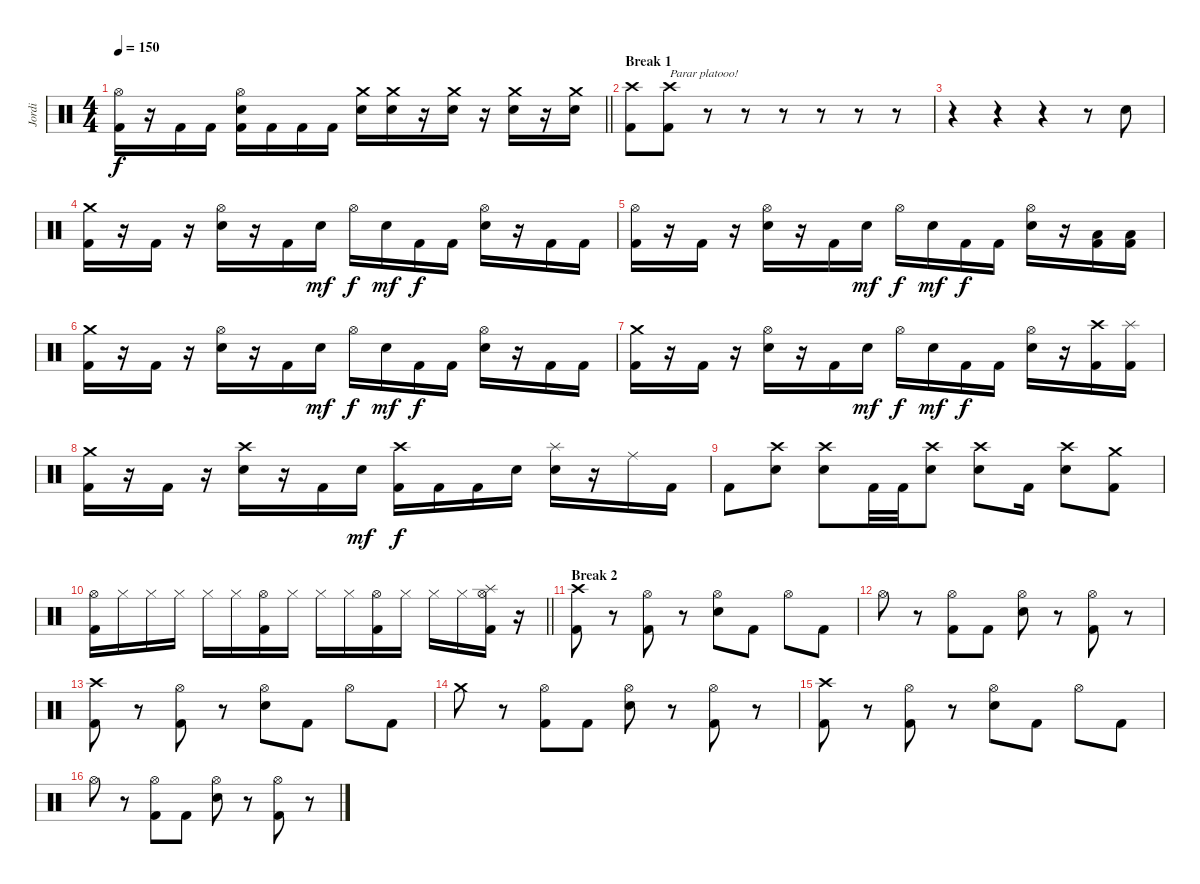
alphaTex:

\track ("Jordi" "Jordi") {instrument percussion}
\staff {score}
\articulation defaults
\ts (4 4)
\tempo 150
\clef neutral
\barLineRight lightlight
\ks c
("Hi-Hat (open)" "Kick (hit) 2").16{dy f} r.16 "Kick (hit) 2".16 "Kick (hit) 2".16 ("Hi-Hat (open)" "Snare (hit) 2" "Kick (hit) 2").16 "Kick (hit) 2".16 "Kick (hit) 2".16 "Kick (hit) 2".16 ("Crash medium (hit)" "Snare (hit) 2").16 ("Crash medium (hit)" "Snare (hit) 2").16 r.16 ("Crash medium (hit)" "Snare (hit) 2").16 r.16 ("Crash medium (hit)" "Snare (hit) 2").16 r.16 ("Crash medium (hit)" "Snare (hit) 2").16 |
\section ("" "Break 1")
("Crash high (hit)" "Kick (hit) 2").8 ("Crash high (hit)" "Kick (hit) 2").8{txt "Parar platooo!"} r.8 r.8 r.8 r.8 r.8 r.8 |
r.4 r.4 r.4 r.8 "Snare (hit) 2".8 |
("Crash medium (hit)" "Kick (hit) 2").16 r.16 "Kick (hit) 2".16 r.16 ("Hi-Hat (open)" "Snare (hit) 2").16 r.16 "Kick (hit) 2".16 "Snare (hit) 2".16{dy mf} "Hi-Hat (open)".16{dy f} "Snare (hit) 2".16{dy mf} "Kick (hit) 2".16{dy f} "Kick (hit) 2".16 ("Hi-Hat (open)" "Snare (hit) 2").16 r.16 "Kick (hit) 2".16 "Kick (hit) 2".16 |
("Hi-Hat (open)" "Kick (hit) 2").16 r.16 "Kick (hit) 2".16 r.16 ("Hi-Hat (open)" "Snare (hit) 2").16 r.16 "Kick (hit) 2".16 "Snare (hit) 2".16{dy mf} "Hi-Hat (open)".16{dy f} "Snare (hit) 2".16{dy mf} "Kick (hit) 2".16{dy f} "Kick (hit) 2".16 ("Hi-Hat (open)" "Snare (hit) 2").16 r.16 ("Low Tom (hit)" "Kick (hit) 2").16 ("Low Tom (hit)" "Kick (hit) 2").16 |
("Crash medium (hit)" "Kick (hit) 2").16 r.16 "Kick (hit) 2".16 r.16 ("Hi-Hat (open)" "Snare (hit) 2").16 r.16 "Kick (hit) 2".16 "Snare (hit) 2".16{dy mf} "Hi-Hat (open)".16{dy f} "Snare (hit) 2".16{dy mf} "Kick (hit) 2".16{dy f} "Kick (hit) 2".16 ("Hi-Hat (open)" "Snare (hit) 2").16 r.16 "Kick (hit) 2".16 "Kick (hit) 2".16 |
("Crash medium (hit)" "Kick (hit) 2").16 r.16 "Kick (hit) 2".16 r.16 ("Hi-Hat (open)" "Snare (hit) 2").16 r.16 "Kick (hit) 2".16 "Snare (hit) 2".16{dy mf} "Hi-Hat (open)".16{dy f} "Snare (hit) 2".16{dy mf} "Kick (hit) 2".16{dy f} "Kick (hit) 2".16 ("Hi-Hat (open)" "Snare (hit) 2").16 r.16 ("Crash high (hit)" "Kick (hit) 2").16 ("Splash (hit)" "Kick (hit) 2").16 |
("Crash medium (hit)" "Kick (hit) 2").16 r.16 "Kick (hit) 2".16 r.16 ("Crash high (hit)" "Snare (hit) 2").16 r.16 "Kick (hit) 2".16 "Snare (hit) 2".16{dy mf} ("Crash high (hit)" "Kick (hit) 2").16{dy f} "Kick (hit) 2".16 "Kick (hit) 2".16 "Snare (hit) 2".16 ("Splash (hit)" "Snare (hit) 2").16 r.16 "Ride (middle)".16 "Kick (hit) 2".16 |
"Kick (hit) 2".8 ("Crash high (hit)" "Snare (hit) 2").8 ("Crash high (hit)" "Snare (hit) 2").8 "Kick (hit) 2".32 "Kick (hit) 2".32 ("Crash high (hit)" "Snare (hit) 2").8 ("Crash high (hit)" "Snare (hit) 2").8 "Kick (hit) 2".16 ("Crash high (hit)" "Snare (hit) 2").8 ("Crash medium (hit)" "Kick (hit) 2").8 |
\barLineRight lightlight
("Hi-Hat (open)" "Kick (hit) 2").16 "Hi-Hat (closed)".16 "Hi-Hat (closed)".16 "Hi-Hat (closed)".16 "Hi-Hat (closed)".16 "Hi-Hat (closed)".16 ("Hi-Hat (open)" "Kick (hit) 2").16 "Hi-Hat (closed)".16 "Hi-Hat (closed)".16 "Hi-Hat (closed)".16 ("Hi-Hat (open)" "Kick (hit) 2").16 "Hi-Hat (closed)".16 "Hi-Hat (closed)".16 "Hi-Hat (closed)".16 ("Splash (hit)" "Hi-Hat (open)" "Kick (hit) 2").16 r.16 |
\section ("" "Break 2")
("Crash high (hit)" "Kick (hit) 2").8 r.8 ("Hi-Hat (open)" "Kick (hit) 2").8 r.8 ("Hi-Hat (open)" "Snare (hit) 2").8 "Kick (hit) 2".8 "Hi-Hat (open)".8 "Kick (hit) 2".8 |
"Hi-Hat (open)".8 r.8 ("Hi-Hat (open)" "Kick (hit) 2").8 "Kick (hit) 2".8 ("Hi-Hat (open)" "Snare (hit) 2").8 r.8 ("Hi-Hat (open)" "Kick (hit) 2").8 r.8 |
("Crash high (hit)" "Kick (hit) 2").8 r.8 ("Hi-Hat (open)" "Kick (hit) 2").8 r.8 ("Hi-Hat (open)" "Snare (hit) 2").8 "Kick (hit) 2".8 "Hi-Hat (open)".8 "Kick (hit) 2".8 |
"Crash medium (hit)".8 r.8 ("Hi-Hat (open)" "Kick (hit) 2").8 "Kick (hit) 2".8 ("Hi-Hat (open)" "Snare (hit) 2").8 r.8 ("Hi-Hat (open)" "Kick (hit) 2").8 r.8 |
("Crash high (hit)" "Kick (hit) 2").8 r.8 ("Hi-Hat (open)" "Kick (hit) 2").8 r.8 ("Hi-Hat (open)" "Snare (hit) 2").8 "Kick (hit) 2".8 "Hi-Hat (open)".8 "Kick (hit) 2".8 |
"Hi-Hat (open)".8 r.8 ("Hi-Hat (open)" "Kick (hit) 2").8 "Kick (hit) 2".8 ("Hi-Hat (open)" "Snare (hit) 2").8 r.8 ("Hi-Hat (open)" "Kick (hit) 2").8 r.8
